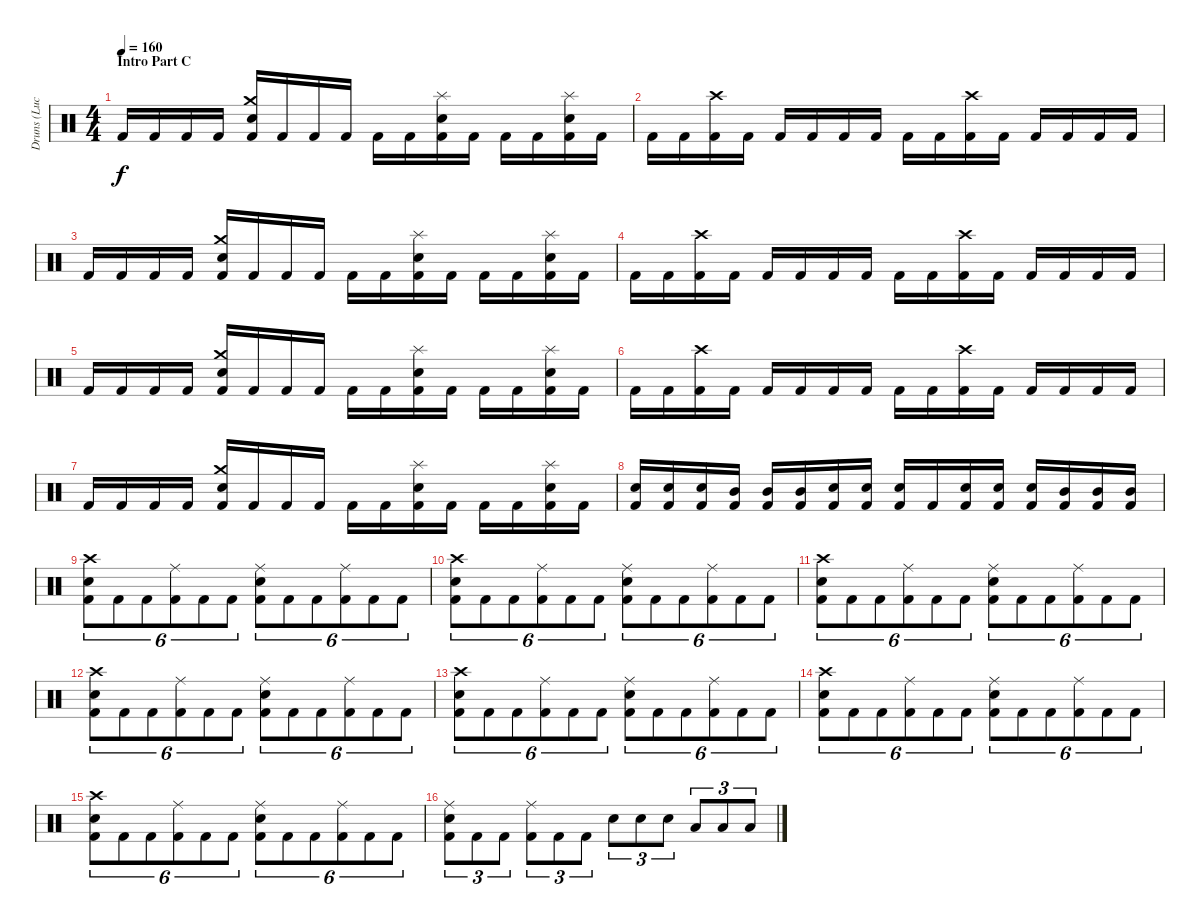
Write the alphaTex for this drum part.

\track ("Druns (Lucas Zigarti)" "Druns (Luc") {instrument percussion}
\staff {score}
\articulation defaults
\ts (4 4)
\section ("" "Intro Part C")
\tempo 160
\clef neutral
\ks c "Kick (hit) 2".16{dy f} "Kick (hit) 2".16 "Kick (hit) 2".16 "Kick (hit) 2".16
("Crash medium (hit)" "Electric Snare (hit)" "Kick (hit) 2").16 "Kick (hit) 2".16 "Kick (hit) 2".16 "Kick (hit) 2".16 "Kick (hit) 2".16 "Kick (hit) 2".16 ("Splash (hit)" "Electric Snare (hit)" "Kick (hit) 2").16 "Kick (hit) 2".16 "Kick (hit) 2".16 "Kick (hit) 2".16 ("Splash (hit)" "Electric Snare (hit)" "Kick (hit) 2").16 "Kick (hit) 2".16 |
"Kick (hit) 2".16 "Kick (hit) 2".16 ("Crash high (hit)" "Kick (hit) 2").16 "Kick (hit) 2".16 "Kick (hit) 2".16 "Kick (hit) 2".16 "Kick (hit) 2".16 "Kick (hit) 2".16 "Kick (hit) 2".16 "Kick (hit) 2".16 ("Crash high (hit)" "Kick (hit) 2").16 "Kick (hit) 2".16 "Kick (hit) 2".16 "Kick (hit) 2".16 "Kick (hit) 2".16 "Kick (hit) 2".16 |
"Kick (hit) 2".16 "Kick (hit) 2".16 "Kick (hit) 2".16 "Kick (hit) 2".16 ("Crash medium (hit)" "Electric Snare (hit)" "Kick (hit) 2").16 "Kick (hit) 2".16 "Kick (hit) 2".16 "Kick (hit) 2".16 "Kick (hit) 2".16 "Kick (hit) 2".16 ("Splash (hit)" "Electric Snare (hit)" "Kick (hit) 2").16 "Kick (hit) 2".16 "Kick (hit) 2".16 "Kick (hit) 2".16 ("Splash (hit)" "Electric Snare (hit)" "Kick (hit) 2").16 "Kick (hit) 2".16 |
"Kick (hit) 2".16 "Kick (hit) 2".16 ("Crash high (hit)" "Kick (hit) 2").16 "Kick (hit) 2".16 "Kick (hit) 2".16 "Kick (hit) 2".16 "Kick (hit) 2".16 "Kick (hit) 2".16 "Kick (hit) 2".16 "Kick (hit) 2".16 ("Crash high (hit)" "Kick (hit) 2").16 "Kick (hit) 2".16 "Kick (hit) 2".16 "Kick (hit) 2".16 "Kick (hit) 2".16 "Kick (hit) 2".16 |
"Kick (hit) 2".16 "Kick (hit) 2".16 "Kick (hit) 2".16 "Kick (hit) 2".16 ("Crash medium (hit)" "Electric Snare (hit)" "Kick (hit) 2").16 "Kick (hit) 2".16 "Kick (hit) 2".16 "Kick (hit) 2".16 "Kick (hit) 2".16 "Kick (hit) 2".16 ("Splash (hit)" "Electric Snare (hit)" "Kick (hit) 2").16 "Kick (hit) 2".16 "Kick (hit) 2".16 "Kick (hit) 2".16 ("Splash (hit)" "Electric Snare (hit)" "Kick (hit) 2").16 "Kick (hit) 2".16 |
"Kick (hit) 2".16 "Kick (hit) 2".16 ("Crash high (hit)" "Kick (hit) 2").16 "Kick (hit) 2".16 "Kick (hit) 2".16 "Kick (hit) 2".16 "Kick (hit) 2".16 "Kick (hit) 2".16 "Kick (hit) 2".16 "Kick (hit) 2".16 ("Crash high (hit)" "Kick (hit) 2").16 "Kick (hit) 2".16 "Kick (hit) 2".16 "Kick (hit) 2".16 "Kick (hit) 2".16 "Kick (hit) 2".16 |
"Kick (hit) 2".16 "Kick (hit) 2".16 "Kick (hit) 2".16 "Kick (hit) 2".16 ("Crash medium (hit)" "Electric Snare (hit)" "Kick (hit) 2").16 "Kick (hit) 2".16 "Kick (hit) 2".16 "Kick (hit) 2".16 "Kick (hit) 2".16 "Kick (hit) 2".16 ("Splash (hit)" "Electric Snare (hit)" "Kick (hit) 2").16 "Kick (hit) 2".16 "Kick (hit) 2".16 "Kick (hit) 2".16 ("Splash (hit)" "Electric Snare (hit)" "Kick (hit) 2").16 "Kick (hit) 2".16 |
("Electric Snare (hit)" "Kick (hit) 2").16 ("Electric Snare (hit)" "Kick (hit) 2").16 ("Electric Snare (hit)" "Kick (hit) 2").16 ("Mid Tom (hit)" "Kick (hit) 2").16 ("Mid Tom (hit)" "Kick (hit) 2").16 ("Mid Tom (hit)" "Kick (hit) 2").16 ("Electric Snare (hit)" "Kick (hit) 2").16 ("Electric Snare (hit)" "Kick (hit) 2").16 ("Electric Snare (hit)" "Kick (hit) 2").16 "Kick (hit) 2".16 ("Electric Snare (hit)" "Kick (hit) 2").16 ("Electric Snare (hit)" "Kick (hit) 2").16 ("Electric Snare (hit)" "Kick (hit) 2").16 ("Mid Tom (hit)" "Kick (hit) 2").16 ("Mid Tom (hit)" "Kick (hit) 2").16 ("Mid Tom (hit)" "Kick (hit) 2").16 |
("Kick (hit) 2" "Crash high (hit)" "Electric Snare (hit)").8{tu (6 4)} "Kick (hit) 2".8{tu (6 4)} "Kick (hit) 2".8{tu (6 4)} ("Kick (hit) 2" "Ride (middle)").8{tu (6 4)} "Kick (hit) 2".8{tu (6 4)} "Kick (hit) 2".8{tu (6 4)} ("Kick (hit) 2" "Ride (middle)" "Electric Snare (hit)").8{tu (6 4)} "Kick (hit) 2".8{tu (6 4)} "Kick (hit) 2".8{tu (6 4)} ("Kick (hit) 2" "Ride (middle)").8{tu (6 4)} "Kick (hit) 2".8{tu (6 4)} "Kick (hit) 2".8{tu (6 4)} |
("Kick (hit) 2" "Crash high (hit)" "Electric Snare (hit)").8{tu (6 4)} "Kick (hit) 2".8{tu (6 4)} "Kick (hit) 2".8{tu (6 4)} ("Kick (hit) 2" "Ride (middle)").8{tu (6 4)} "Kick (hit) 2".8{tu (6 4)} "Kick (hit) 2".8{tu (6 4)} ("Kick (hit) 2" "Ride (middle)" "Electric Snare (hit)").8{tu (6 4)} "Kick (hit) 2".8{tu (6 4)} "Kick (hit) 2".8{tu (6 4)} ("Kick (hit) 2" "Ride (middle)").8{tu (6 4)} "Kick (hit) 2".8{tu (6 4)} "Kick (hit) 2".8{tu (6 4)} |
("Kick (hit) 2" "Crash high (hit)" "Electric Snare (hit)").8{tu (6 4)} "Kick (hit) 2".8{tu (6 4)} "Kick (hit) 2".8{tu (6 4)} ("Kick (hit) 2" "Ride (middle)").8{tu (6 4)} "Kick (hit) 2".8{tu (6 4)} "Kick (hit) 2".8{tu (6 4)} ("Kick (hit) 2" "Ride (middle)" "Electric Snare (hit)").8{tu (6 4)} "Kick (hit) 2".8{tu (6 4)} "Kick (hit) 2".8{tu (6 4)} ("Kick (hit) 2" "Ride (middle)").8{tu (6 4)} "Kick (hit) 2".8{tu (6 4)} "Kick (hit) 2".8{tu (6 4)} |
("Kick (hit) 2" "Crash high (hit)" "Electric Snare (hit)").8{tu (6 4)} "Kick (hit) 2".8{tu (6 4)} "Kick (hit) 2".8{tu (6 4)} ("Kick (hit) 2" "Ride (middle)").8{tu (6 4)} "Kick (hit) 2".8{tu (6 4)} "Kick (hit) 2".8{tu (6 4)} ("Kick (hit) 2" "Ride (middle)" "Electric Snare (hit)").8{tu (6 4)} "Kick (hit) 2".8{tu (6 4)} "Kick (hit) 2".8{tu (6 4)} ("Kick (hit) 2" "Ride (middle)").8{tu (6 4)} "Kick (hit) 2".8{tu (6 4)} "Kick (hit) 2".8{tu (6 4)} |
("Kick (hit) 2" "Crash high (hit)" "Electric Snare (hit)").8{tu (6 4)} "Kick (hit) 2".8{tu (6 4)} "Kick (hit) 2".8{tu (6 4)} ("Kick (hit) 2" "Ride (middle)").8{tu (6 4)} "Kick (hit) 2".8{tu (6 4)} "Kick (hit) 2".8{tu (6 4)} ("Kick (hit) 2" "Ride (middle)" "Electric Snare (hit)").8{tu (6 4)} "Kick (hit) 2".8{tu (6 4)} "Kick (hit) 2".8{tu (6 4)} ("Kick (hit) 2" "Ride (middle)").8{tu (6 4)} "Kick (hit) 2".8{tu (6 4)} "Kick (hit) 2".8{tu (6 4)} |
("Kick (hit) 2" "Crash high (hit)" "Electric Snare (hit)").8{tu (6 4)} "Kick (hit) 2".8{tu (6 4)} "Kick (hit) 2".8{tu (6 4)} ("Kick (hit) 2" "Ride (middle)").8{tu (6 4)} "Kick (hit) 2".8{tu (6 4)} "Kick (hit) 2".8{tu (6 4)} ("Kick (hit) 2" "Ride (middle)" "Electric Snare (hit)").8{tu (6 4)} "Kick (hit) 2".8{tu (6 4)} "Kick (hit) 2".8{tu (6 4)} ("Kick (hit) 2" "Ride (middle)").8{tu (6 4)} "Kick (hit) 2".8{tu (6 4)} "Kick (hit) 2".8{tu (6 4)} |
("Kick (hit) 2" "Crash high (hit)" "Electric Snare (hit)").8{tu (6 4)} "Kick (hit) 2".8{tu (6 4)} "Kick (hit) 2".8{tu (6 4)} ("Kick (hit) 2" "Ride (middle)").8{tu (6 4)} "Kick (hit) 2".8{tu (6 4)} "Kick (hit) 2".8{tu (6 4)} ("Kick (hit) 2" "Ride (middle)" "Electric Snare (hit)").8{tu (6 4)} "Kick (hit) 2".8{tu (6 4)} "Kick (hit) 2".8{tu (6 4)} ("Kick (hit) 2" "Ride (middle)").8{tu (6 4)} "Kick (hit) 2".8{tu (6 4)} "Kick (hit) 2".8{tu (6 4)} |
("Kick (hit) 2" "Ride (middle)" "Electric Snare (hit)").8{tu (3 2)} "Kick (hit) 2".8{tu (3 2)} "Kick (hit) 2".8{tu (3 2)} ("Kick (hit) 2" "Ride (middle)").8{tu (3 2)} "Kick (hit) 2".8{tu (3 2)} "Kick (hit) 2".8{tu (3 2)} "Electric Snare (hit)".8{tu (3 2)} "Electric Snare (hit)".8{tu (3 2)} "Electric Snare (hit)".8{tu (3 2)} "Low Floor Tom (hit)".8{tu (3 2)} "Low Floor Tom (hit)".8{tu (3 2)} "Low Tom (hit)".8{tu (3 2)}
